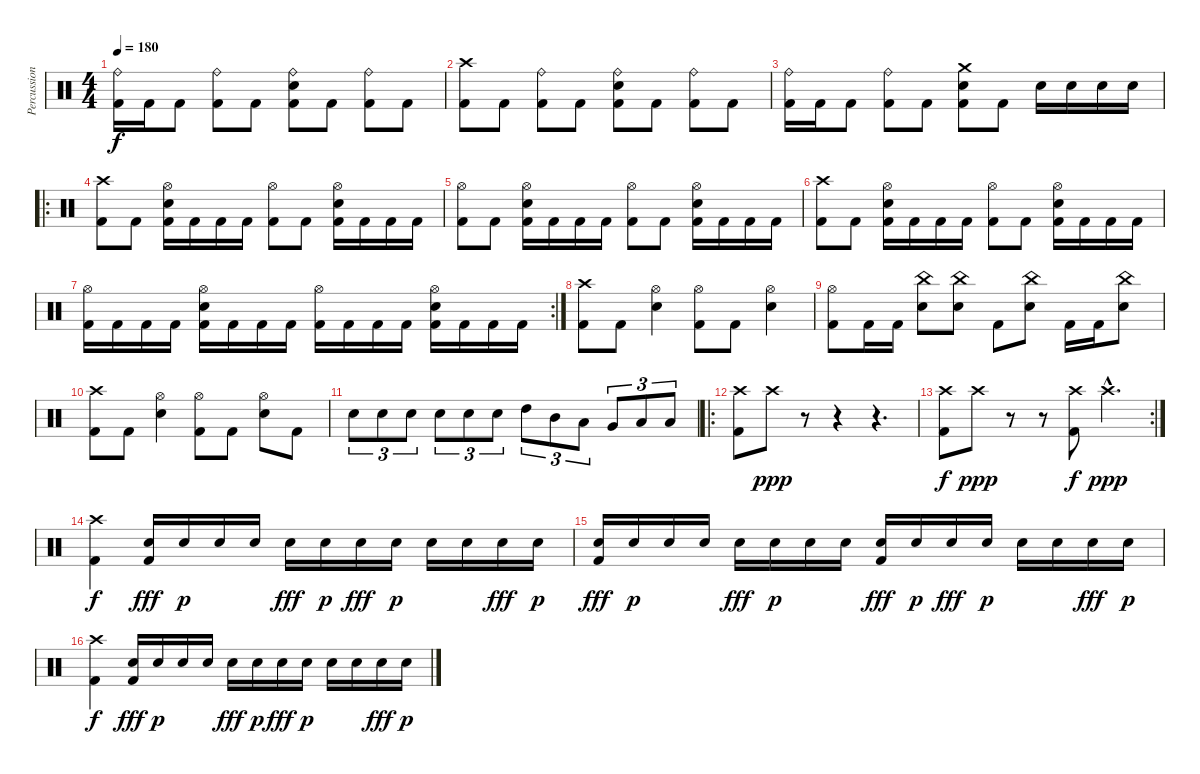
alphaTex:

\track ("Percussions" "Percussion") {instrument percussion}
\staff {score}
\articulation defaults
\ts (4 4)
\tempo 180
\clef neutral
\ks c
("Ride (bell)" "Kick (hit) 2").16{dy f} "Kick (hit) 2".16 "Kick (hit) 2".8 ("Ride (bell)" "Kick (hit) 2").8 "Kick (hit) 2".8 ("Ride (bell)" "Snare (hit) 2" "Kick (hit) 2").8 "Kick (hit) 2".8 ("Ride (bell)" "Kick (hit) 2").8 "Kick (hit) 2".8 |
("Crash high (hit)" "Kick (hit) 2").8 "Kick (hit) 2".8 ("Ride (bell)" "Kick (hit) 2").8 "Kick (hit) 2".8 ("Ride (bell)" "Snare (hit) 2" "Kick (hit) 2").8 "Kick (hit) 2".8 ("Ride (bell)" "Kick (hit) 2").8 "Kick (hit) 2".8 |
("Ride (bell)" "Kick (hit) 2").16 "Kick (hit) 2".16 "Kick (hit) 2".8 ("Ride (bell)" "Kick (hit) 2").8 "Kick (hit) 2".8 ("Crash medium (hit)" "Snare (hit) 2" "Kick (hit) 2").8 "Kick (hit) 2".8 "Snare (hit) 2".16 "Snare (hit) 2".16 "Snare (hit) 2".16 "Snare (hit) 2".16 |
\ro
("Crash high (hit)" "Kick (hit) 2").8 "Kick (hit) 2".8 ("Hi-Hat (open)" "Snare (hit) 2" "Kick (hit) 2").16 "Kick (hit) 2".16 "Kick (hit) 2".16 "Kick (hit) 2".16 ("Hi-Hat (open)" "Kick (hit) 2").8 "Kick (hit) 2".8 ("Hi-Hat (open)" "Snare (hit) 2" "Kick (hit) 2").16 "Kick (hit) 2".16 "Kick (hit) 2".16 "Kick (hit) 2".16 |
("Hi-Hat (open)" "Kick (hit) 2").8 "Kick (hit) 2".8 ("Hi-Hat (open)" "Snare (hit) 2" "Kick (hit) 2").16 "Kick (hit) 2".16 "Kick (hit) 2".16 "Kick (hit) 2".16 ("Hi-Hat (open)" "Kick (hit) 2").8 "Kick (hit) 2".8 ("Hi-Hat (open)" "Snare (hit) 2" "Kick (hit) 2").16 "Kick (hit) 2".16 "Kick (hit) 2".16 "Kick (hit) 2".16 |
("Crash high (hit)" "Kick (hit) 2").8 "Kick (hit) 2".8 ("Hi-Hat (open)" "Snare (hit) 2" "Kick (hit) 2").16 "Kick (hit) 2".16 "Kick (hit) 2".16 "Kick (hit) 2".16 ("Hi-Hat (open)" "Kick (hit) 2").8 "Kick (hit) 2".8 ("Hi-Hat (open)" "Snare (hit) 2" "Kick (hit) 2").16 "Kick (hit) 2".16 "Kick (hit) 2".16 "Kick (hit) 2".16 |
\rc 2
("Hi-Hat (open)" "Kick (hit) 2").16 "Kick (hit) 2".16 "Kick (hit) 2".16 "Kick (hit) 2".16 ("Hi-Hat (open)" "Snare (hit) 2" "Kick (hit) 2").16 "Kick (hit) 2".16 "Kick (hit) 2".16 "Kick (hit) 2".16 ("Hi-Hat (open)" "Kick (hit) 2").16 "Kick (hit) 2".16 "Kick (hit) 2".16 "Kick (hit) 2".16 ("Hi-Hat (open)" "Snare (hit) 2" "Kick (hit) 2").16 "Kick (hit) 2".16 "Kick (hit) 2".16 "Kick (hit) 2".16 |
("Crash high (hit)" "Kick (hit) 2").8 "Kick (hit) 2".8 ("Hi-Hat (open)" "Snare (hit) 2").4 ("Hi-Hat (open)" "Kick (hit) 2").8 "Kick (hit) 2".8 ("Hi-Hat (open)" "Snare (hit) 2").4 |
("Hi-Hat (open)" "Kick (hit) 2").8 "Kick (hit) 2".16 "Kick (hit) 2".16 ("China (hit)" "Snare (hit) 2").8 ("China (hit)" "Snare (hit) 2").8 "Kick (hit) 2".8 ("China (hit)" "Snare (hit) 2").8 "Kick (hit) 2".16 "Kick (hit) 2".16 ("China (hit)" "Snare (hit) 2").8 |
("Crash high (hit)" "Kick (hit) 2").8 "Kick (hit) 2".8 ("Hi-Hat (open)" "Snare (hit) 2").4 ("Hi-Hat (open)" "Kick (hit) 2").8 "Kick (hit) 2".8 ("Hi-Hat (open)" "Snare (hit) 2").8 "Kick (hit) 2".8 |
"Snare (hit) 2".8{tu (3 2)} "Snare (hit) 2".8{tu (3 2)} "Snare (hit) 2".8{tu (3 2)} "Snare (hit) 2".8{tu (3 2)} "Snare (hit) 2".8{tu (3 2)} "Snare (hit) 2".8{tu (3 2)} "High Tom (hit)".8{tu (3 2)} "Mid Tom (hit)".8{tu (3 2)} "Low Tom (hit)".8{tu (3 2)} "Very Low Tom (hit)".8{tu (3 2)} "Low Floor Tom (hit)".8{tu (3 2)} "Low Floor Tom (hit)".8{tu (3 2)} |
\ro
("Crash high (hit)" "Kick (hit) 2").8 "Crash high (hit)".8{dy ppp} r.8 r.4 r.4{d} |
\rc 2
("Crash high (hit)" "Kick (hit) 2").8{dy f} "Crash high (hit)".8{dy ppp} r.8 r.8 ("Crash high (hit)" "Kick (hit) 2").8{dy f} "Crash high (hit)"{hac}.4{d dy ppp} |
("Crash high (hit)" "Kick (hit) 2").4{dy f} ("Snare (hit) 2" "Kick (hit) 2").16{dy fff} "Snare (hit) 2".16{dy p} "Snare (hit) 2".16 "Snare (hit) 2".16 "Snare (hit) 2".16{dy fff} "Snare (hit) 2".16{dy p} "Snare (hit) 2".16{dy fff} "Snare (hit) 2".16{dy p} "Snare (hit) 2".16 "Snare (hit) 2".16 "Snare (hit) 2".16{dy fff} "Snare (hit) 2".16{dy p} |
("Snare (hit) 2" "Kick (hit) 2").16{dy fff} "Snare (hit) 2".16{dy p} "Snare (hit) 2".16 "Snare (hit) 2".16 "Snare (hit) 2".16{dy fff} "Snare (hit) 2".16{dy p} "Snare (hit) 2".16 "Snare (hit) 2".16 ("Snare (hit) 2" "Kick (hit) 2").16{dy fff} "Snare (hit) 2".16{dy p} "Snare (hit) 2".16{dy fff} "Snare (hit) 2".16{dy p} "Snare (hit) 2".16 "Snare (hit) 2".16 "Snare (hit) 2".16{dy fff} "Snare (hit) 2".16{dy p} |
("Crash high (hit)" "Kick (hit) 2").4{dy f} ("Snare (hit) 2" "Kick (hit) 2").16{dy fff} "Snare (hit) 2".16{dy p} "Snare (hit) 2".16 "Snare (hit) 2".16 "Snare (hit) 2".16{dy fff} "Snare (hit) 2".16{dy p} "Snare (hit) 2".16{dy fff} "Snare (hit) 2".16{dy p} "Snare (hit) 2".16 "Snare (hit) 2".16 "Snare (hit) 2".16{dy fff} "Snare (hit) 2".16{dy p}
